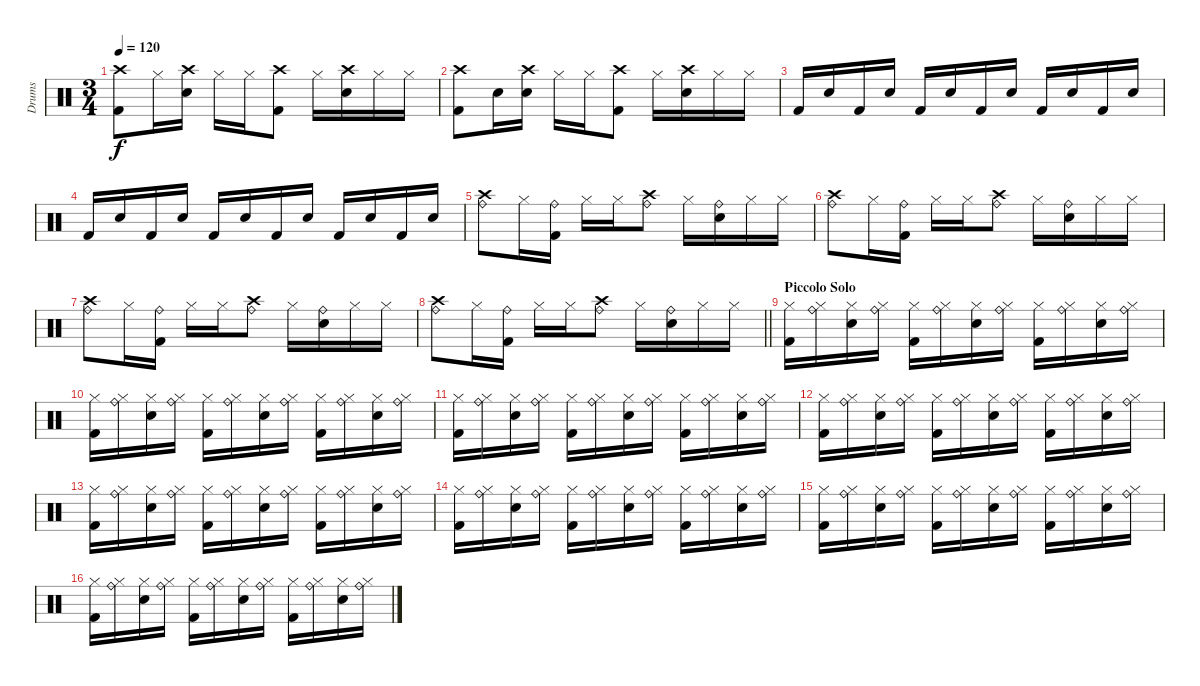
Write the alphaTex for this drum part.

\track ("Drums" "Drums") {instrument percussion}
\staff {score}
\articulation defaults
\ts (3 4)
\tempo 120
\clef neutral
\ks c
("Crash high (hit)" "Kick (hit) 2").8{dy f} "Hi-Hat (closed)".16 ("Crash high (hit)" "Electric Snare (hit)").16 "Hi-Hat (closed)".16 "Hi-Hat (closed)".16 ("Crash high (hit)" "Kick (hit) 2").8 "Hi-Hat (closed)".16 ("Electric Snare (hit)" "Crash high (hit)").16 "Hi-Hat (closed)".16 "Hi-Hat (closed)".16 |
("Crash high (hit)" "Kick (hit) 2").8 "Snare (hit)".16 ("Crash high (hit)" "Electric Snare (hit)").16 "Hi-Hat (closed)".16 "Hi-Hat (closed)".16 ("Crash high (hit)" "Kick (hit) 2").8 "Hi-Hat (closed)".16 ("Electric Snare (hit)" "Crash high (hit)").16 "Hi-Hat (closed)".16 "Hi-Hat (closed)".16 |
"Kick (hit) 2".16 "Electric Snare (hit)".16 "Kick (hit) 2".16 "Electric Snare (hit)".16 "Kick (hit) 2".16 "Electric Snare (hit)".16 "Kick (hit) 2".16 "Electric Snare (hit)".16 "Kick (hit) 2".16 "Electric Snare (hit)".16 "Kick (hit) 2".16 "Electric Snare (hit)".16 |
"Kick (hit) 2".16 "Electric Snare (hit)".16 "Kick (hit) 2".16 "Electric Snare (hit)".16 "Kick (hit) 2".16 "Electric Snare (hit)".16 "Kick (hit) 2".16 "Electric Snare (hit)".16 "Kick (hit) 2".16 "Electric Snare (hit)".16 "Kick (hit) 2".16 "Electric Snare (hit)".16 |
("Crash high (hit)" "Ride (bell)").8 "Hi-Hat (closed)".16 ("Ride (bell)" "Kick (hit) 2").16 "Hi-Hat (closed)".16 "Hi-Hat (closed)".16 ("Crash high (hit)" "Ride (bell)").8 "Hi-Hat (closed)".16 ("Electric Snare (hit)" "Ride (bell)").16 "Hi-Hat (closed)".16 "Hi-Hat (closed)".16 |
("Crash high (hit)" "Ride (bell)").8 "Hi-Hat (closed)".16 ("Ride (bell)" "Kick (hit) 2").16 "Hi-Hat (closed)".16 "Hi-Hat (closed)".16 ("Crash high (hit)" "Ride (bell)").8 "Hi-Hat (closed)".16 ("Electric Snare (hit)" "Ride (bell)").16 "Hi-Hat (closed)".16 "Hi-Hat (closed)".16 |
("Crash high (hit)" "Ride (bell)").8 "Hi-Hat (closed)".16 ("Ride (bell)" "Kick (hit) 2").16 "Hi-Hat (closed)".16 "Hi-Hat (closed)".16 ("Crash high (hit)" "Ride (bell)").8 "Hi-Hat (closed)".16 ("Electric Snare (hit)" "Ride (bell)").16 "Hi-Hat (closed)".16 "Hi-Hat (closed)".16 |
\barLineRight lightlight
("Crash high (hit)" "Ride (bell)").8 "Hi-Hat (closed)".16 ("Ride (bell)" "Kick (hit) 2").16 "Hi-Hat (closed)".16 "Hi-Hat (closed)".16 ("Crash high (hit)" "Ride (bell)").8 "Hi-Hat (closed)".16 ("Electric Snare (hit)" "Ride (bell)").16 "Hi-Hat (closed)".16 "Hi-Hat (closed)".16 |
\section ("" "Piccolo Solo")
("Kick (hit) 2" "Hi-Hat (closed)").16 ("Hi-Hat (closed)" "Ride (bell)").16 ("Electric Snare (hit)" "Hi-Hat (closed)").16 ("Hi-Hat (closed)" "Ride (bell)").16 ("Kick (hit) 2" "Hi-Hat (closed)").16 ("Hi-Hat (closed)" "Ride (bell)").16 ("Electric Snare (hit)" "Hi-Hat (closed)").16 ("Hi-Hat (closed)" "Ride (bell)").16 ("Kick (hit) 2" "Hi-Hat (closed)").16 ("Hi-Hat (closed)" "Ride (bell)").16 ("Electric Snare (hit)" "Hi-Hat (closed)").16 ("Hi-Hat (closed)" "Ride (bell)").16 |
("Kick (hit) 2" "Hi-Hat (closed)").16 ("Hi-Hat (closed)" "Ride (bell)").16 ("Electric Snare (hit)" "Hi-Hat (closed)").16 ("Hi-Hat (closed)" "Ride (bell)").16 ("Kick (hit) 2" "Hi-Hat (closed)").16 ("Hi-Hat (closed)" "Ride (bell)").16 ("Electric Snare (hit)" "Hi-Hat (closed)").16 ("Hi-Hat (closed)" "Ride (bell)").16 ("Kick (hit) 2" "Hi-Hat (closed)").16 ("Hi-Hat (closed)" "Ride (bell)").16 ("Electric Snare (hit)" "Hi-Hat (closed)").16 ("Hi-Hat (closed)" "Ride (bell)").16 |
("Kick (hit) 2" "Hi-Hat (closed)").16 ("Hi-Hat (closed)" "Ride (bell)").16 ("Electric Snare (hit)" "Hi-Hat (closed)").16 ("Hi-Hat (closed)" "Ride (bell)").16 ("Kick (hit) 2" "Hi-Hat (closed)").16 ("Hi-Hat (closed)" "Ride (bell)").16 ("Electric Snare (hit)" "Hi-Hat (closed)").16 ("Hi-Hat (closed)" "Ride (bell)").16 ("Kick (hit) 2" "Hi-Hat (closed)").16 ("Hi-Hat (closed)" "Ride (bell)").16 ("Electric Snare (hit)" "Hi-Hat (closed)").16 ("Hi-Hat (closed)" "Ride (bell)").16 |
("Kick (hit) 2" "Hi-Hat (closed)").16 ("Hi-Hat (closed)" "Ride (bell)").16 ("Electric Snare (hit)" "Hi-Hat (closed)").16 ("Hi-Hat (closed)" "Ride (bell)").16 ("Kick (hit) 2" "Hi-Hat (closed)").16 ("Hi-Hat (closed)" "Ride (bell)").16 ("Electric Snare (hit)" "Hi-Hat (closed)").16 ("Hi-Hat (closed)" "Ride (bell)").16 ("Kick (hit) 2" "Hi-Hat (closed)").16 ("Hi-Hat (closed)" "Ride (bell)").16 ("Electric Snare (hit)" "Hi-Hat (closed)").16 ("Hi-Hat (closed)" "Ride (bell)").16 |
("Kick (hit) 2" "Hi-Hat (closed)").16 ("Hi-Hat (closed)" "Ride (bell)").16 ("Electric Snare (hit)" "Hi-Hat (closed)").16 ("Hi-Hat (closed)" "Ride (bell)").16 ("Kick (hit) 2" "Hi-Hat (closed)").16 ("Hi-Hat (closed)" "Ride (bell)").16 ("Electric Snare (hit)" "Hi-Hat (closed)").16 ("Hi-Hat (closed)" "Ride (bell)").16 ("Kick (hit) 2" "Hi-Hat (closed)").16 ("Hi-Hat (closed)" "Ride (bell)").16 ("Electric Snare (hit)" "Hi-Hat (closed)").16 ("Hi-Hat (closed)" "Ride (bell)").16 |
("Kick (hit) 2" "Hi-Hat (closed)").16 ("Hi-Hat (closed)" "Ride (bell)").16 ("Electric Snare (hit)" "Hi-Hat (closed)").16 ("Hi-Hat (closed)" "Ride (bell)").16 ("Kick (hit) 2" "Hi-Hat (closed)").16 ("Hi-Hat (closed)" "Ride (bell)").16 ("Electric Snare (hit)" "Hi-Hat (closed)").16 ("Hi-Hat (closed)" "Ride (bell)").16 ("Kick (hit) 2" "Hi-Hat (closed)").16 ("Hi-Hat (closed)" "Ride (bell)").16 ("Electric Snare (hit)" "Hi-Hat (closed)").16 ("Hi-Hat (closed)" "Ride (bell)").16 |
("Kick (hit) 2" "Hi-Hat (closed)").16 ("Hi-Hat (closed)" "Ride (bell)").16 ("Electric Snare (hit)" "Hi-Hat (closed)").16 ("Hi-Hat (closed)" "Ride (bell)").16 ("Kick (hit) 2" "Hi-Hat (closed)").16 ("Hi-Hat (closed)" "Ride (bell)").16 ("Electric Snare (hit)" "Hi-Hat (closed)").16 ("Hi-Hat (closed)" "Ride (bell)").16 ("Kick (hit) 2" "Hi-Hat (closed)").16 ("Hi-Hat (closed)" "Ride (bell)").16 ("Electric Snare (hit)" "Hi-Hat (closed)").16 ("Hi-Hat (closed)" "Ride (bell)").16 |
("Kick (hit) 2" "Hi-Hat (closed)").16 ("Hi-Hat (closed)" "Ride (bell)").16 ("Electric Snare (hit)" "Hi-Hat (closed)").16 ("Hi-Hat (closed)" "Ride (bell)").16 ("Kick (hit) 2" "Hi-Hat (closed)").16 ("Hi-Hat (closed)" "Ride (bell)").16 ("Electric Snare (hit)" "Hi-Hat (closed)").16 ("Hi-Hat (closed)" "Ride (bell)").16 ("Kick (hit) 2" "Hi-Hat (closed)").16 ("Hi-Hat (closed)" "Ride (bell)").16 ("Electric Snare (hit)" "Hi-Hat (closed)").16 ("Hi-Hat (closed)" "Ride (bell)").16
